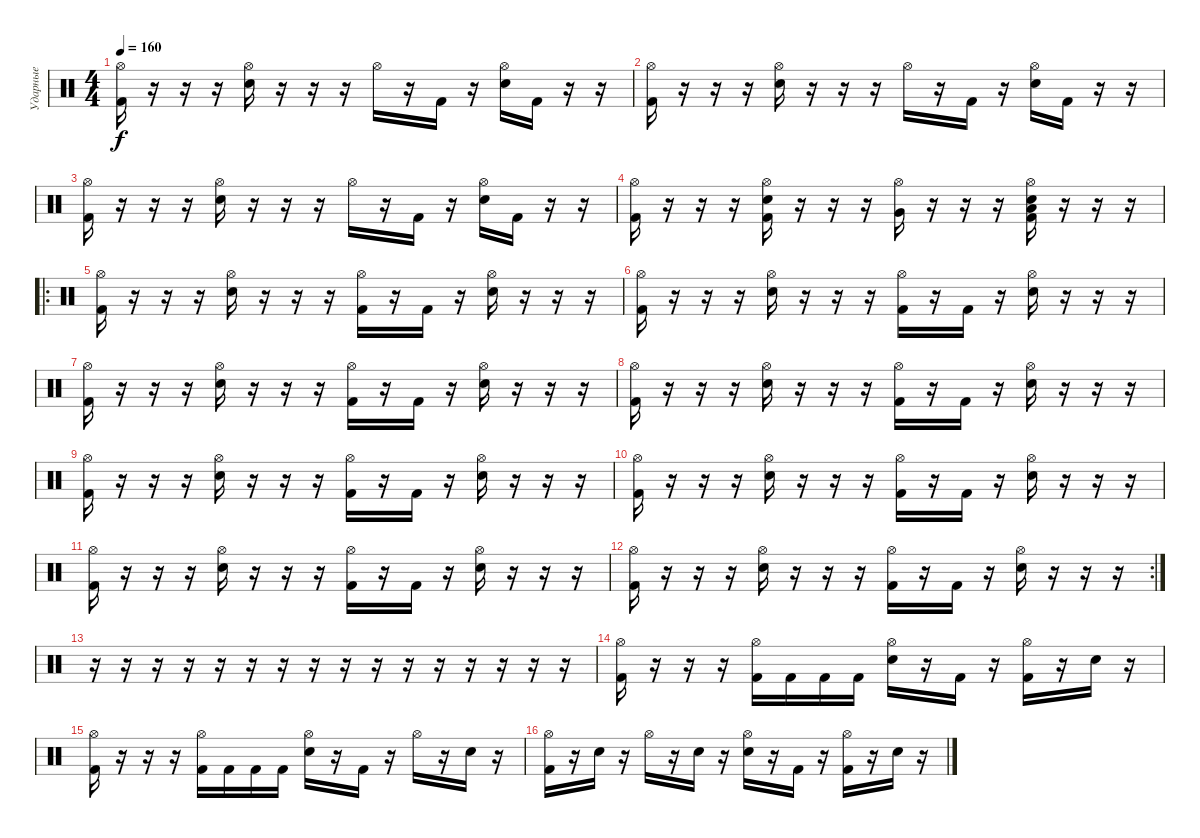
\track ("Ударные" "Ударные") {instrument percussion}
\staff {score}
\articulation defaults
\ts (4 4)
\tempo 160
\clef neutral
\ks c
("Hi-Hat (open)" "Kick (hit) 2").16{dy f} r.16 r.16 r.16 ("Hi-Hat (open)" "Electric Snare (hit)").16 r.16 r.16 r.16 "Hi-Hat (open)".16 r.16 "Kick (hit) 2".16 r.16 ("Hi-Hat (open)" "Electric Snare (hit)").16 "Kick (hit) 2".16 r.16 r.16 |
("Hi-Hat (open)" "Kick (hit) 2").16 r.16 r.16 r.16 ("Hi-Hat (open)" "Electric Snare (hit)").16 r.16 r.16 r.16 "Hi-Hat (open)".16 r.16 "Kick (hit) 2".16 r.16 ("Hi-Hat (open)" "Electric Snare (hit)").16 "Kick (hit) 2".16 r.16 r.16 |
("Hi-Hat (open)" "Kick (hit) 2").16 r.16 r.16 r.16 ("Hi-Hat (open)" "Electric Snare (hit)").16 r.16 r.16 r.16 "Hi-Hat (open)".16 r.16 "Kick (hit) 2".16 r.16 ("Hi-Hat (open)" "Electric Snare (hit)").16 "Kick (hit) 2".16 r.16 r.16 |
("Hi-Hat (open)" "Kick (hit) 2").16 r.16 r.16 r.16 ("Hi-Hat (open)" "Electric Snare (hit)" "Kick (hit) 2").16 r.16 r.16 r.16 ("Hi-Hat (open)" "Very Low Tom (hit)").16 r.16 r.16 r.16 ("Hi-Hat (open)" "Electric Snare (hit)" "Kick (hit) 2" "Low Floor Tom (hit)").16 r.16 r.16 r.16 |
\ro
("Hi-Hat (open)" "Kick (hit) 2").16 r.16 r.16 r.16 ("Hi-Hat (open)" "Electric Snare (hit)").16 r.16 r.16 r.16 ("Hi-Hat (open)" "Kick (hit) 2").16 r.16 "Kick (hit) 2".16 r.16 ("Hi-Hat (open)" "Electric Snare (hit)").16 r.16 r.16 r.16 |
("Hi-Hat (open)" "Kick (hit) 2").16 r.16 r.16 r.16 ("Hi-Hat (open)" "Electric Snare (hit)").16 r.16 r.16 r.16 ("Hi-Hat (open)" "Kick (hit) 2").16 r.16 "Kick (hit) 2".16 r.16 ("Hi-Hat (open)" "Electric Snare (hit)").16 r.16 r.16 r.16 |
("Hi-Hat (open)" "Kick (hit) 2").16 r.16 r.16 r.16 ("Hi-Hat (open)" "Electric Snare (hit)").16 r.16 r.16 r.16 ("Hi-Hat (open)" "Kick (hit) 2").16 r.16 "Kick (hit) 2".16 r.16 ("Hi-Hat (open)" "Electric Snare (hit)").16 r.16 r.16 r.16 |
("Hi-Hat (open)" "Kick (hit) 2").16 r.16 r.16 r.16 ("Hi-Hat (open)" "Electric Snare (hit)").16 r.16 r.16 r.16 ("Hi-Hat (open)" "Kick (hit) 2").16 r.16 "Kick (hit) 2".16 r.16 ("Hi-Hat (open)" "Electric Snare (hit)").16 r.16 r.16 r.16 |
("Hi-Hat (open)" "Kick (hit) 2").16 r.16 r.16 r.16 ("Hi-Hat (open)" "Electric Snare (hit)").16 r.16 r.16 r.16 ("Hi-Hat (open)" "Kick (hit) 2").16 r.16 "Kick (hit) 2".16 r.16 ("Hi-Hat (open)" "Electric Snare (hit)").16 r.16 r.16 r.16 |
("Hi-Hat (open)" "Kick (hit) 2").16 r.16 r.16 r.16 ("Hi-Hat (open)" "Electric Snare (hit)").16 r.16 r.16 r.16 ("Hi-Hat (open)" "Kick (hit) 2").16 r.16 "Kick (hit) 2".16 r.16 ("Hi-Hat (open)" "Electric Snare (hit)").16 r.16 r.16 r.16 |
("Hi-Hat (open)" "Kick (hit) 2").16 r.16 r.16 r.16 ("Hi-Hat (open)" "Electric Snare (hit)").16 r.16 r.16 r.16 ("Hi-Hat (open)" "Kick (hit) 2").16 r.16 "Kick (hit) 2".16 r.16 ("Hi-Hat (open)" "Electric Snare (hit)").16 r.16 r.16 r.16 |
\rc 2
("Hi-Hat (open)" "Kick (hit) 2").16 r.16 r.16 r.16 ("Hi-Hat (open)" "Electric Snare (hit)").16 r.16 r.16 r.16 ("Hi-Hat (open)" "Kick (hit) 2").16 r.16 "Kick (hit) 2".16 r.16 ("Hi-Hat (open)" "Electric Snare (hit)").16 r.16 r.16 r.16 |
r.16 r.16 r.16 r.16 r.16 r.16 r.16 r.16 r.16 r.16 r.16 r.16 r.16 r.16 r.16 r.16 |
("Hi-Hat (open)" "Kick (hit) 2").16 r.16 r.16 r.16 ("Hi-Hat (open)" "Kick (hit) 2").16 "Kick (hit) 2".16 "Kick (hit) 2".16 "Kick (hit) 2".16 ("Hi-Hat (open)" "Electric Snare (hit)").16 r.16 "Kick (hit) 2".16 r.16 ("Hi-Hat (open)" "Kick (hit) 2").16 r.16 "Electric Snare (hit)".16 r.16 |
("Hi-Hat (open)" "Kick (hit) 2").16 r.16 r.16 r.16 ("Hi-Hat (open)" "Kick (hit) 2").16 "Kick (hit) 2".16 "Kick (hit) 2".16 "Kick (hit) 2".16 ("Hi-Hat (open)" "Electric Snare (hit)").16 r.16 "Kick (hit) 2".16 r.16 "Hi-Hat (open)".16 r.16 "Electric Snare (hit)".16 r.16 |
("Hi-Hat (open)" "Kick (hit) 2").16 r.16 "Electric Snare (hit)".16 r.16 "Hi-Hat (open)".16 r.16 "Electric Snare (hit)".16 r.16 ("Hi-Hat (open)" "Electric Snare (hit)").16 r.16 "Kick (hit) 2".16 r.16 ("Hi-Hat (open)" "Kick (hit) 2").16 r.16 "Electric Snare (hit)".16 r.16
